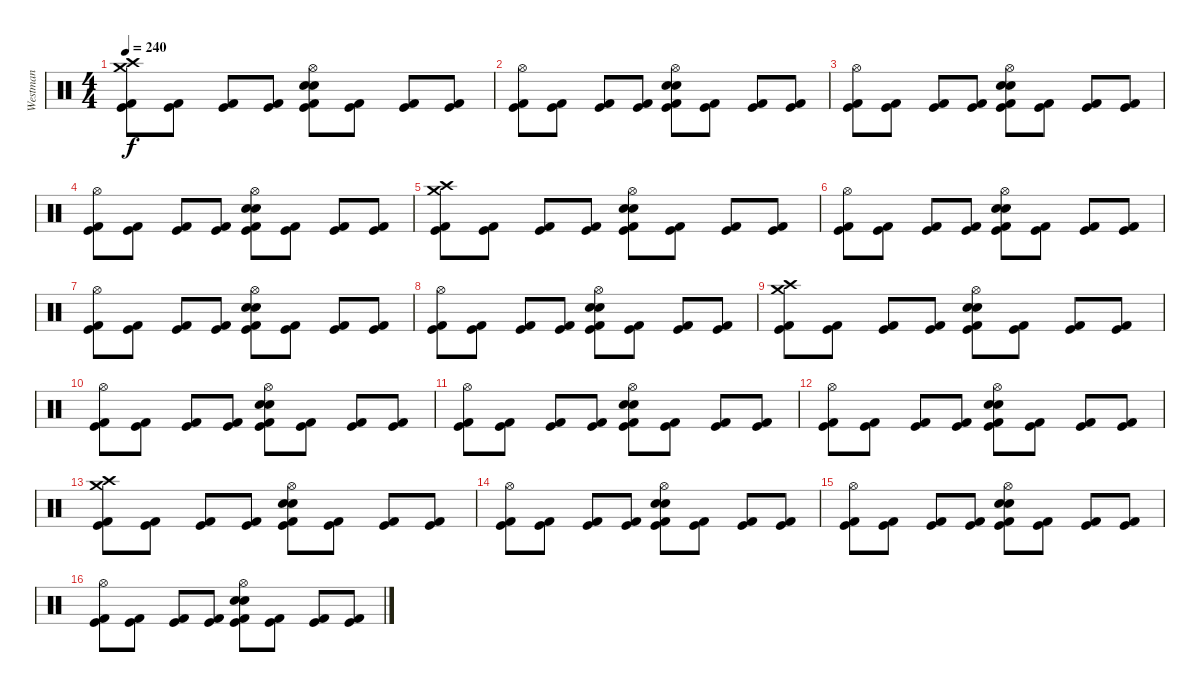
\track ("Westman" "Westman") {instrument percussion}
\staff {score}
\articulation defaults
\ts (4 4)
\tempo 240
\clef neutral
\ks c
("Kick (hit)" "Kick (hit) 2" "Crash high (hit)" "Crash medium (hit)").8{dy f} ("Kick (hit)" "Kick (hit) 2").8 ("Kick (hit)" "Kick (hit) 2").8 ("Kick (hit)" "Kick (hit) 2").8 ("Kick (hit)" "Kick (hit) 2" "Electric Snare (hit)" "Snare (hit) 2" "Hi-Hat (open)").8 ("Kick (hit)" "Kick (hit) 2").8 ("Kick (hit)" "Kick (hit) 2").8 ("Kick (hit)" "Kick (hit) 2").8 |
("Kick (hit)" "Kick (hit) 2" "Hi-Hat (open)").8 ("Kick (hit)" "Kick (hit) 2").8 ("Kick (hit)" "Kick (hit) 2").8 ("Kick (hit)" "Kick (hit) 2").8 ("Kick (hit)" "Kick (hit) 2" "Snare (hit) 2" "Electric Snare (hit)" "Hi-Hat (open)").8 ("Kick (hit)" "Kick (hit) 2").8 ("Kick (hit)" "Kick (hit) 2").8 ("Kick (hit)" "Kick (hit) 2").8 |
("Kick (hit)" "Kick (hit) 2" "Hi-Hat (open)").8 ("Kick (hit)" "Kick (hit) 2").8 ("Kick (hit)" "Kick (hit) 2").8 ("Kick (hit)" "Kick (hit) 2").8 ("Kick (hit)" "Kick (hit) 2" "Snare (hit) 2" "Electric Snare (hit)" "Hi-Hat (open)").8 ("Kick (hit)" "Kick (hit) 2").8 ("Kick (hit)" "Kick (hit) 2").8 ("Kick (hit)" "Kick (hit) 2").8 |
("Kick (hit)" "Kick (hit) 2" "Hi-Hat (open)").8 ("Kick (hit)" "Kick (hit) 2").8 ("Kick (hit)" "Kick (hit) 2").8 ("Kick (hit)" "Kick (hit) 2").8 ("Kick (hit)" "Kick (hit) 2" "Electric Snare (hit)" "Snare (hit) 2" "Hi-Hat (open)").8 ("Kick (hit)" "Kick (hit) 2").8 ("Kick (hit)" "Kick (hit) 2").8 ("Kick (hit)" "Kick (hit) 2").8 |
("Kick (hit)" "Kick (hit) 2" "Crash medium (hit)" "Crash high (hit)").8 ("Kick (hit)" "Kick (hit) 2").8 ("Kick (hit)" "Kick (hit) 2").8 ("Kick (hit)" "Kick (hit) 2").8 ("Kick (hit)" "Kick (hit) 2" "Snare (hit) 2" "Electric Snare (hit)" "Hi-Hat (open)").8 ("Kick (hit)" "Kick (hit) 2").8 ("Kick (hit)" "Kick (hit) 2").8 ("Kick (hit)" "Kick (hit) 2").8 |
("Kick (hit)" "Kick (hit) 2" "Hi-Hat (open)").8 ("Kick (hit)" "Kick (hit) 2").8 ("Kick (hit)" "Kick (hit) 2").8 ("Kick (hit)" "Kick (hit) 2").8 ("Kick (hit)" "Kick (hit) 2" "Snare (hit) 2" "Electric Snare (hit)" "Hi-Hat (open)").8 ("Kick (hit)" "Kick (hit) 2").8 ("Kick (hit)" "Kick (hit) 2").8 ("Kick (hit)" "Kick (hit) 2").8 |
("Kick (hit)" "Kick (hit) 2" "Hi-Hat (open)").8 ("Kick (hit)" "Kick (hit) 2").8 ("Kick (hit)" "Kick (hit) 2").8 ("Kick (hit)" "Kick (hit) 2").8 ("Kick (hit)" "Kick (hit) 2" "Snare (hit) 2" "Electric Snare (hit)" "Hi-Hat (open)").8 ("Kick (hit)" "Kick (hit) 2").8 ("Kick (hit)" "Kick (hit) 2").8 ("Kick (hit)" "Kick (hit) 2").8 |
("Kick (hit)" "Kick (hit) 2" "Hi-Hat (open)").8 ("Kick (hit)" "Kick (hit) 2").8 ("Kick (hit)" "Kick (hit) 2").8 ("Kick (hit)" "Kick (hit) 2").8 ("Kick (hit)" "Kick (hit) 2" "Electric Snare (hit)" "Snare (hit) 2" "Hi-Hat (open)").8 ("Kick (hit)" "Kick (hit) 2").8 ("Kick (hit)" "Kick (hit) 2").8 ("Kick (hit)" "Kick (hit) 2").8 |
("Kick (hit)" "Kick (hit) 2" "Crash medium (hit)" "Crash high (hit)").8 ("Kick (hit)" "Kick (hit) 2").8 ("Kick (hit)" "Kick (hit) 2").8 ("Kick (hit)" "Kick (hit) 2").8 ("Kick (hit)" "Kick (hit) 2" "Snare (hit) 2" "Electric Snare (hit)" "Hi-Hat (open)").8 ("Kick (hit)" "Kick (hit) 2").8 ("Kick (hit)" "Kick (hit) 2").8 ("Kick (hit)" "Kick (hit) 2").8 |
("Kick (hit)" "Kick (hit) 2" "Hi-Hat (open)").8 ("Kick (hit)" "Kick (hit) 2").8 ("Kick (hit)" "Kick (hit) 2").8 ("Kick (hit)" "Kick (hit) 2").8 ("Kick (hit)" "Kick (hit) 2" "Snare (hit) 2" "Electric Snare (hit)" "Hi-Hat (open)").8 ("Kick (hit)" "Kick (hit) 2").8 ("Kick (hit)" "Kick (hit) 2").8 ("Kick (hit)" "Kick (hit) 2").8 |
("Kick (hit)" "Kick (hit) 2" "Hi-Hat (open)").8 ("Kick (hit)" "Kick (hit) 2").8 ("Kick (hit)" "Kick (hit) 2").8 ("Kick (hit)" "Kick (hit) 2").8 ("Kick (hit)" "Kick (hit) 2" "Snare (hit) 2" "Electric Snare (hit)" "Hi-Hat (open)").8 ("Kick (hit)" "Kick (hit) 2").8 ("Kick (hit)" "Kick (hit) 2").8 ("Kick (hit)" "Kick (hit) 2").8 |
("Kick (hit)" "Kick (hit) 2" "Hi-Hat (open)").8 ("Kick (hit)" "Kick (hit) 2").8 ("Kick (hit)" "Kick (hit) 2").8 ("Kick (hit)" "Kick (hit) 2").8 ("Kick (hit)" "Kick (hit) 2" "Electric Snare (hit)" "Snare (hit) 2" "Hi-Hat (open)").8 ("Kick (hit)" "Kick (hit) 2").8 ("Kick (hit)" "Kick (hit) 2").8 ("Kick (hit)" "Kick (hit) 2").8 |
("Kick (hit)" "Kick (hit) 2" "Crash medium (hit)" "Crash high (hit)").8 ("Kick (hit)" "Kick (hit) 2").8 ("Kick (hit)" "Kick (hit) 2").8 ("Kick (hit)" "Kick (hit) 2").8 ("Kick (hit)" "Kick (hit) 2" "Snare (hit) 2" "Electric Snare (hit)" "Hi-Hat (open)").8 ("Kick (hit)" "Kick (hit) 2").8 ("Kick (hit)" "Kick (hit) 2").8 ("Kick (hit)" "Kick (hit) 2").8 |
("Kick (hit)" "Kick (hit) 2" "Hi-Hat (open)").8 ("Kick (hit)" "Kick (hit) 2").8 ("Kick (hit)" "Kick (hit) 2").8 ("Kick (hit)" "Kick (hit) 2").8 ("Kick (hit)" "Kick (hit) 2" "Snare (hit) 2" "Electric Snare (hit)" "Hi-Hat (open)").8 ("Kick (hit)" "Kick (hit) 2").8 ("Kick (hit)" "Kick (hit) 2").8 ("Kick (hit)" "Kick (hit) 2").8 |
("Kick (hit)" "Kick (hit) 2" "Hi-Hat (open)").8 ("Kick (hit)" "Kick (hit) 2").8 ("Kick (hit)" "Kick (hit) 2").8 ("Kick (hit)" "Kick (hit) 2").8 ("Kick (hit)" "Kick (hit) 2" "Snare (hit) 2" "Electric Snare (hit)" "Hi-Hat (open)").8 ("Kick (hit)" "Kick (hit) 2").8 ("Kick (hit)" "Kick (hit) 2").8 ("Kick (hit)" "Kick (hit) 2").8 |
("Kick (hit)" "Kick (hit) 2" "Hi-Hat (open)").8 ("Kick (hit)" "Kick (hit) 2").8 ("Kick (hit)" "Kick (hit) 2").8 ("Kick (hit)" "Kick (hit) 2").8 ("Kick (hit)" "Kick (hit) 2" "Electric Snare (hit)" "Snare (hit) 2" "Hi-Hat (open)").8 ("Kick (hit)" "Kick (hit) 2").8 ("Kick (hit)" "Kick (hit) 2").8 ("Kick (hit)" "Kick (hit) 2").8
